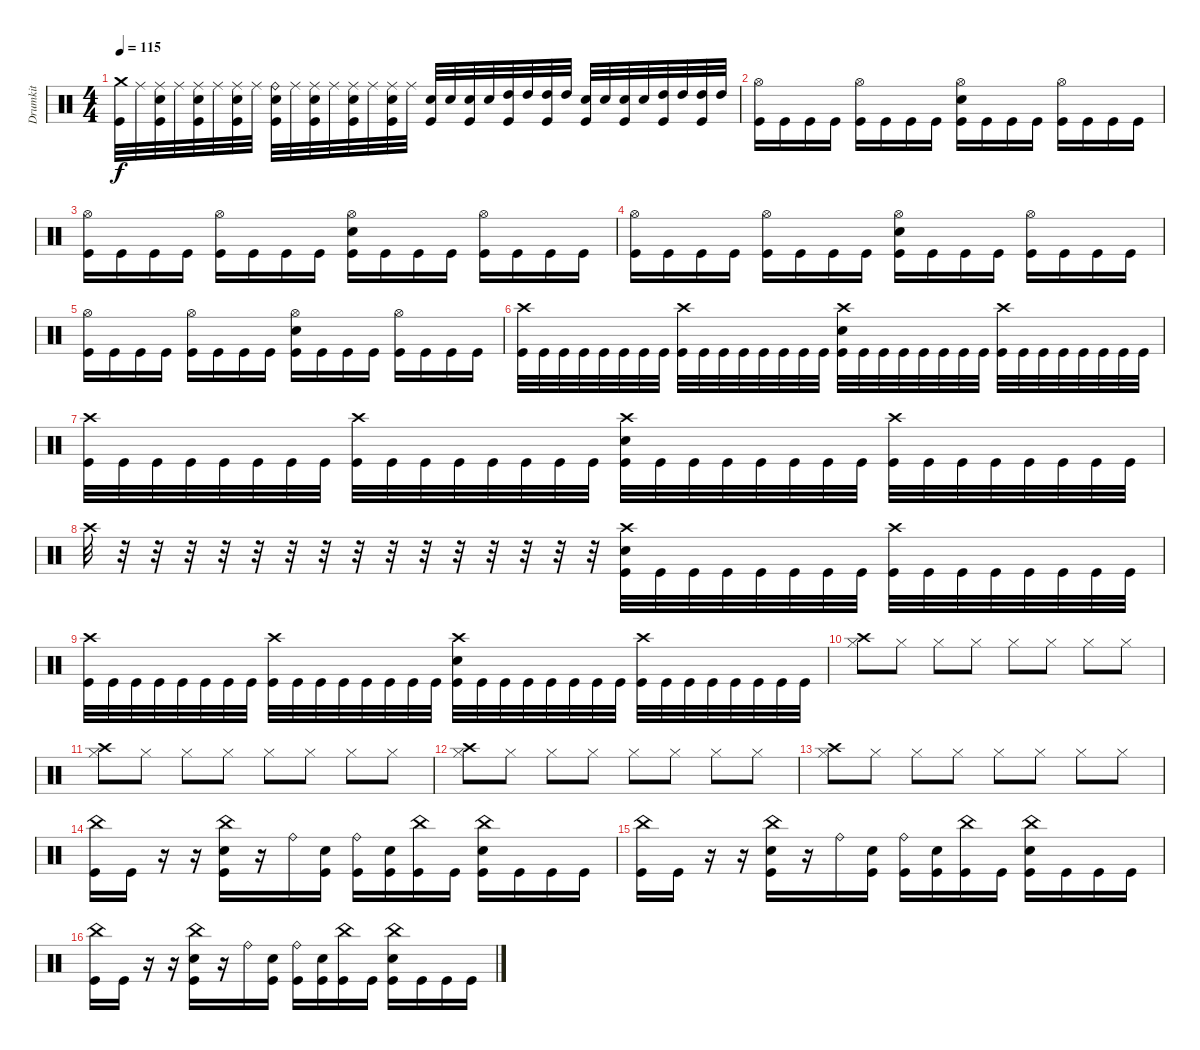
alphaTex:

\track ("Drumkit" "Drumkit") {instrument percussion}
\staff {score}
\articulation defaults
\ts (4 4)
\tempo 115
\clef neutral
\ks c
("Kick (hit)" "Crash medium (hit)").32{dy f} "Ride (middle)".32 ("Kick (hit)" "Snare (hit) 2" "Ride (middle)").32 "Ride (middle)".32 ("Kick (hit)" "Snare (hit) 2" "Ride (middle)").32 "Ride (middle)".32 ("Kick (hit)" "Snare (hit) 2" "Ride (middle)").32 "Ride (middle)".32 ("Kick (hit)" "Snare (hit) 2" "Ride (bell)").32 "Ride (middle)".32 ("Kick (hit)" "Snare (hit) 2" "Ride (middle)").32 "Ride (middle)".32 ("Kick (hit)" "Snare (hit) 2" "Ride (middle)").32 "Ride (middle)".32 ("Kick (hit)" "Snare (hit) 2" "Ride (middle)").32 "Ride (middle)".32 ("Kick (hit)" "Snare (hit) 2").32 "Snare (hit) 2".32 ("Kick (hit)" "Snare (hit) 2").32 "Snare (hit) 2".32 ("Kick (hit)" "High Tom (hit)").32 "High Tom (hit)".32 ("Kick (hit)" "High Tom (hit)").32 "High Tom (hit)".32 ("Kick (hit)" "Snare (hit) 2").32 "Snare (hit) 2".32 ("Kick (hit)" "Snare (hit) 2").32 "Snare (hit) 2".32 ("Kick (hit)" "High Tom (hit)").32 "High Tom (hit)".32 ("Kick (hit)" "High Tom (hit)").32 "High Tom (hit)".32 |
("Kick (hit)" "Hi-Hat (open)").16 "Kick (hit)".16 "Kick (hit)".16 "Kick (hit)".16 ("Kick (hit)" "Hi-Hat (open)").16 "Kick (hit)".16 "Kick (hit)".16 "Kick (hit)".16 ("Kick (hit)" "Snare (hit) 2" "Hi-Hat (open)").16 "Kick (hit)".16 "Kick (hit)".16 "Kick (hit)".16 ("Kick (hit)" "Hi-Hat (open)").16 "Kick (hit)".16 "Kick (hit)".16 "Kick (hit)".16 |
("Kick (hit)" "Hi-Hat (open)").16 "Kick (hit)".16 "Kick (hit)".16 "Kick (hit)".16 ("Kick (hit)" "Hi-Hat (open)").16 "Kick (hit)".16 "Kick (hit)".16 "Kick (hit)".16 ("Kick (hit)" "Snare (hit) 2" "Hi-Hat (open)").16 "Kick (hit)".16 "Kick (hit)".16 "Kick (hit)".16 ("Kick (hit)" "Hi-Hat (open)").16 "Kick (hit)".16 "Kick (hit)".16 "Kick (hit)".16 |
("Kick (hit)" "Hi-Hat (open)").16 "Kick (hit)".16 "Kick (hit)".16 "Kick (hit)".16 ("Kick (hit)" "Hi-Hat (open)").16 "Kick (hit)".16 "Kick (hit)".16 "Kick (hit)".16 ("Kick (hit)" "Snare (hit) 2" "Hi-Hat (open)").16 "Kick (hit)".16 "Kick (hit)".16 "Kick (hit)".16 ("Kick (hit)" "Hi-Hat (open)").16 "Kick (hit)".16 "Kick (hit)".16 "Kick (hit)".16 |
("Kick (hit)" "Hi-Hat (open)").16 "Kick (hit)".16 "Kick (hit)".16 "Kick (hit)".16 ("Kick (hit)" "Hi-Hat (open)").16 "Kick (hit)".16 "Kick (hit)".16 "Kick (hit)".16 ("Kick (hit)" "Snare (hit) 2" "Hi-Hat (open)").16 "Kick (hit)".16 "Kick (hit)".16 "Kick (hit)".16 ("Kick (hit)" "Hi-Hat (open)").16 "Kick (hit)".16 "Kick (hit)".16 "Kick (hit)".16 |
("Kick (hit)" "Crash high (hit)").32 "Kick (hit)".32 "Kick (hit)".32 "Kick (hit)".32 "Kick (hit)".32 "Kick (hit)".32 "Kick (hit)".32 "Kick (hit)".32 ("Kick (hit)" "Crash high (hit)").32 "Kick (hit)".32 "Kick (hit)".32 "Kick (hit)".32 "Kick (hit)".32 "Kick (hit)".32 "Kick (hit)".32 "Kick (hit)".32 ("Kick (hit)" "Snare (hit) 2" "Crash high (hit)").32 "Kick (hit)".32 "Kick (hit)".32 "Kick (hit)".32 "Kick (hit)".32 "Kick (hit)".32 "Kick (hit)".32 "Kick (hit)".32 ("Kick (hit)" "Crash high (hit)").32 "Kick (hit)".32 "Kick (hit)".32 "Kick (hit)".32 "Kick (hit)".32 "Kick (hit)".32 "Kick (hit)".32 "Kick (hit)".32 |
("Kick (hit)" "Crash high (hit)").32 "Kick (hit)".32 "Kick (hit)".32 "Kick (hit)".32 "Kick (hit)".32 "Kick (hit)".32 "Kick (hit)".32 "Kick (hit)".32 ("Kick (hit)" "Crash high (hit)").32 "Kick (hit)".32 "Kick (hit)".32 "Kick (hit)".32 "Kick (hit)".32 "Kick (hit)".32 "Kick (hit)".32 "Kick (hit)".32 ("Kick (hit)" "Snare (hit) 2" "Crash high (hit)").32 "Kick (hit)".32 "Kick (hit)".32 "Kick (hit)".32 "Kick (hit)".32 "Kick (hit)".32 "Kick (hit)".32 "Kick (hit)".32 ("Kick (hit)" "Crash high (hit)").32 "Kick (hit)".32 "Kick (hit)".32 "Kick (hit)".32 "Kick (hit)".32 "Kick (hit)".32 "Kick (hit)".32 "Kick (hit)".32 |
"Crash high (hit)".32 r.32 r.32 r.32 r.32 r.32 r.32 r.32 r.32 r.32 r.32 r.32 r.32 r.32 r.32 r.32 ("Kick (hit)" "Snare (hit) 2" "Crash high (hit)").32 "Kick (hit)".32 "Kick (hit)".32 "Kick (hit)".32 "Kick (hit)".32 "Kick (hit)".32 "Kick (hit)".32 "Kick (hit)".32 ("Kick (hit)" "Crash high (hit)").32 "Kick (hit)".32 "Kick (hit)".32 "Kick (hit)".32 "Kick (hit)".32 "Kick (hit)".32 "Kick (hit)".32 "Kick (hit)".32 |
("Kick (hit)" "Crash high (hit)").32 "Kick (hit)".32 "Kick (hit)".32 "Kick (hit)".32 "Kick (hit)".32 "Kick (hit)".32 "Kick (hit)".32 "Kick (hit)".32 ("Kick (hit)" "Crash high (hit)").32 "Kick (hit)".32 "Kick (hit)".32 "Kick (hit)".32 "Kick (hit)".32 "Kick (hit)".32 "Kick (hit)".32 "Kick (hit)".32 ("Kick (hit)" "Snare (hit) 2" "Crash high (hit)").32 "Kick (hit)".32 "Kick (hit)".32 "Kick (hit)".32 "Kick (hit)".32 "Kick (hit)".32 "Kick (hit)".32 "Kick (hit)".32 ("Kick (hit)" "Crash high (hit)").32 "Kick (hit)".32 "Kick (hit)".32 "Kick (hit)".32 "Kick (hit)".32 "Kick (hit)".32 "Kick (hit)".32 "Kick (hit)".32 |
("Hi-Hat (closed)" "Crash high (hit)").8 "Hi-Hat (closed)".8 "Hi-Hat (closed)".8 "Hi-Hat (closed)".8 "Hi-Hat (closed)".8 "Hi-Hat (closed)".8 "Hi-Hat (closed)".8 "Hi-Hat (closed)".8 |
("Hi-Hat (closed)" "Crash high (hit)").8 "Hi-Hat (closed)".8 "Hi-Hat (closed)".8 "Hi-Hat (closed)".8 "Hi-Hat (closed)".8 "Hi-Hat (closed)".8 "Hi-Hat (closed)".8 "Hi-Hat (closed)".8 |
("Hi-Hat (closed)" "Crash high (hit)").8 "Hi-Hat (closed)".8 "Hi-Hat (closed)".8 "Hi-Hat (closed)".8 "Hi-Hat (closed)".8 "Hi-Hat (closed)".8 "Hi-Hat (closed)".8 "Hi-Hat (closed)".8 |
("Hi-Hat (closed)" "Crash high (hit)").8 "Hi-Hat (closed)".8 "Hi-Hat (closed)".8 "Hi-Hat (closed)".8 "Hi-Hat (closed)".8 "Hi-Hat (closed)".8 "Hi-Hat (closed)".8 "Hi-Hat (closed)".8 |
("Kick (hit)" "China (hit)").16 "Kick (hit)".16 r.16 r.16 ("Kick (hit)" "Snare (hit) 2" "China (hit)").16 r.16 "Ride (bell)".16 ("Kick (hit)" "Snare (hit) 2").16 ("Kick (hit)" "Ride (bell)").16 ("Kick (hit)" "Snare (hit) 2").16 ("Kick (hit)" "China (hit)").16 "Kick (hit)".16 ("Kick (hit)" "Snare (hit) 2" "China (hit)").16 "Kick (hit)".16 "Kick (hit)".16 "Kick (hit)".16 |
("Kick (hit)" "China (hit)").16 "Kick (hit)".16 r.16 r.16 ("Kick (hit)" "Snare (hit) 2" "China (hit)").16 r.16 "Ride (bell)".16 ("Kick (hit)" "Snare (hit) 2").16 ("Kick (hit)" "Ride (bell)").16 ("Kick (hit)" "Snare (hit) 2").16 ("Kick (hit)" "China (hit)").16 "Kick (hit)".16 ("Kick (hit)" "Snare (hit) 2" "China (hit)").16 "Kick (hit)".16 "Kick (hit)".16 "Kick (hit)".16 |
("Kick (hit)" "China (hit)").16 "Kick (hit)".16 r.16 r.16 ("Kick (hit)" "Snare (hit) 2" "China (hit)").16 r.16 "Ride (bell)".16 ("Kick (hit)" "Snare (hit) 2").16 ("Kick (hit)" "Ride (bell)").16 ("Kick (hit)" "Snare (hit) 2").16 ("Kick (hit)" "China (hit)").16 "Kick (hit)".16 ("Kick (hit)" "Snare (hit) 2" "China (hit)").16 "Kick (hit)".16 "Kick (hit)".16 "Kick (hit)".16
